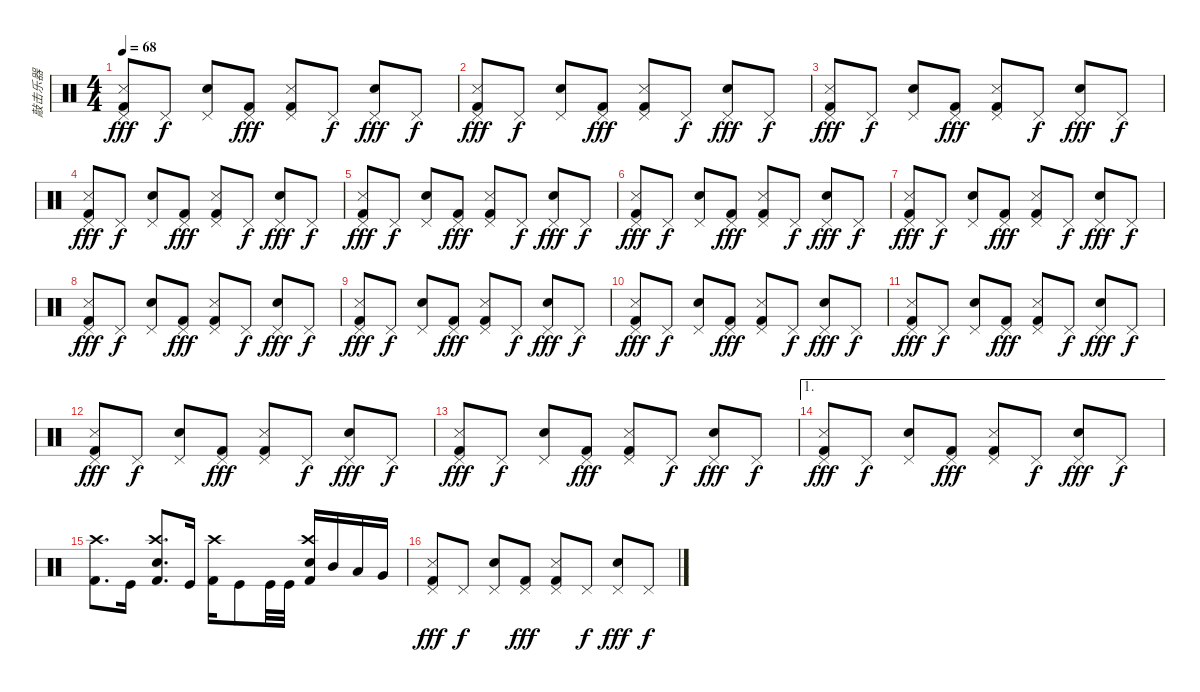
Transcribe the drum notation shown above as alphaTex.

\track ("敲击乐器" "敲击乐器") {instrument percussion}
\staff {score}
\articulation defaults
\ts (4 4)
\tempo 68
\clef neutral
\ks c
("Snare (side stick) 3" "Pedal Hi-Hat (hit)" "Kick (hit) 2").8{dy fff} "Pedal Hi-Hat (hit)".8{dy f} ("Hand Clap (hit)" "Pedal Hi-Hat (hit)").8 ("Pedal Hi-Hat (hit)" "Kick (hit) 2").8{dy fff} ("Snare (side stick) 3" "Pedal Hi-Hat (hit)" "Kick (hit) 2").8 "Pedal Hi-Hat (hit)".8{dy f} ("Hand Clap (hit)" "Pedal Hi-Hat (hit)").8{dy fff} "Pedal Hi-Hat (hit)".8{dy f} |
("Snare (side stick) 3" "Pedal Hi-Hat (hit)" "Kick (hit) 2").8{dy fff} "Pedal Hi-Hat (hit)".8{dy f} ("Hand Clap (hit)" "Pedal Hi-Hat (hit)").8 ("Pedal Hi-Hat (hit)" "Kick (hit) 2").8{dy fff} ("Snare (side stick) 3" "Pedal Hi-Hat (hit)" "Kick (hit) 2").8 "Pedal Hi-Hat (hit)".8{dy f} ("Hand Clap (hit)" "Pedal Hi-Hat (hit)").8{dy fff} "Pedal Hi-Hat (hit)".8{dy f} |
("Snare (side stick) 3" "Pedal Hi-Hat (hit)" "Kick (hit) 2").8{dy fff} "Pedal Hi-Hat (hit)".8{dy f} ("Hand Clap (hit)" "Pedal Hi-Hat (hit)").8 ("Pedal Hi-Hat (hit)" "Kick (hit) 2").8{dy fff} ("Snare (side stick) 3" "Pedal Hi-Hat (hit)" "Kick (hit) 2").8 "Pedal Hi-Hat (hit)".8{dy f} ("Hand Clap (hit)" "Pedal Hi-Hat (hit)").8{dy fff} "Pedal Hi-Hat (hit)".8{dy f} |
("Snare (side stick) 3" "Pedal Hi-Hat (hit)" "Kick (hit) 2").8{dy fff} "Pedal Hi-Hat (hit)".8{dy f} ("Hand Clap (hit)" "Pedal Hi-Hat (hit)").8 ("Pedal Hi-Hat (hit)" "Kick (hit) 2").8{dy fff} ("Snare (side stick) 3" "Pedal Hi-Hat (hit)" "Kick (hit) 2").8 "Pedal Hi-Hat (hit)".8{dy f} ("Hand Clap (hit)" "Pedal Hi-Hat (hit)").8{dy fff} "Pedal Hi-Hat (hit)".8{dy f} |
("Snare (side stick) 3" "Pedal Hi-Hat (hit)" "Kick (hit) 2").8{dy fff} "Pedal Hi-Hat (hit)".8{dy f} ("Hand Clap (hit)" "Pedal Hi-Hat (hit)").8 ("Pedal Hi-Hat (hit)" "Kick (hit) 2").8{dy fff} ("Snare (side stick) 3" "Pedal Hi-Hat (hit)" "Kick (hit) 2").8 "Pedal Hi-Hat (hit)".8{dy f} ("Hand Clap (hit)" "Pedal Hi-Hat (hit)").8{dy fff} "Pedal Hi-Hat (hit)".8{dy f} |
("Snare (side stick) 3" "Pedal Hi-Hat (hit)" "Kick (hit) 2").8{dy fff} "Pedal Hi-Hat (hit)".8{dy f} ("Hand Clap (hit)" "Pedal Hi-Hat (hit)").8 ("Pedal Hi-Hat (hit)" "Kick (hit) 2").8{dy fff} ("Snare (side stick) 3" "Pedal Hi-Hat (hit)" "Kick (hit) 2").8 "Pedal Hi-Hat (hit)".8{dy f} ("Hand Clap (hit)" "Pedal Hi-Hat (hit)").8{dy fff} "Pedal Hi-Hat (hit)".8{dy f} |
("Snare (side stick) 3" "Pedal Hi-Hat (hit)" "Kick (hit) 2").8{dy fff} "Pedal Hi-Hat (hit)".8{dy f} ("Hand Clap (hit)" "Pedal Hi-Hat (hit)").8 ("Pedal Hi-Hat (hit)" "Kick (hit) 2").8{dy fff} ("Snare (side stick) 3" "Pedal Hi-Hat (hit)" "Kick (hit) 2").8 "Pedal Hi-Hat (hit)".8{dy f} ("Hand Clap (hit)" "Pedal Hi-Hat (hit)").8{dy fff} "Pedal Hi-Hat (hit)".8{dy f} |
("Snare (side stick) 3" "Pedal Hi-Hat (hit)" "Kick (hit) 2").8{dy fff} "Pedal Hi-Hat (hit)".8{dy f} ("Hand Clap (hit)" "Pedal Hi-Hat (hit)").8 ("Pedal Hi-Hat (hit)" "Kick (hit) 2").8{dy fff} ("Snare (side stick) 3" "Pedal Hi-Hat (hit)" "Kick (hit) 2").8 "Pedal Hi-Hat (hit)".8{dy f} ("Hand Clap (hit)" "Pedal Hi-Hat (hit)").8{dy fff} "Pedal Hi-Hat (hit)".8{dy f} |
("Snare (side stick) 3" "Pedal Hi-Hat (hit)" "Kick (hit) 2").8{dy fff} "Pedal Hi-Hat (hit)".8{dy f} ("Hand Clap (hit)" "Pedal Hi-Hat (hit)").8 ("Pedal Hi-Hat (hit)" "Kick (hit) 2").8{dy fff} ("Snare (side stick) 3" "Pedal Hi-Hat (hit)" "Kick (hit) 2").8 "Pedal Hi-Hat (hit)".8{dy f} ("Hand Clap (hit)" "Pedal Hi-Hat (hit)").8{dy fff} "Pedal Hi-Hat (hit)".8{dy f} |
("Snare (side stick) 3" "Pedal Hi-Hat (hit)" "Kick (hit) 2").8{dy fff} "Pedal Hi-Hat (hit)".8{dy f} ("Hand Clap (hit)" "Pedal Hi-Hat (hit)").8 ("Pedal Hi-Hat (hit)" "Kick (hit) 2").8{dy fff} ("Snare (side stick) 3" "Pedal Hi-Hat (hit)" "Kick (hit) 2").8 "Pedal Hi-Hat (hit)".8{dy f} ("Hand Clap (hit)" "Pedal Hi-Hat (hit)").8{dy fff} "Pedal Hi-Hat (hit)".8{dy f} |
("Snare (side stick) 3" "Pedal Hi-Hat (hit)" "Kick (hit) 2").8{dy fff} "Pedal Hi-Hat (hit)".8{dy f} ("Hand Clap (hit)" "Pedal Hi-Hat (hit)").8 ("Pedal Hi-Hat (hit)" "Kick (hit) 2").8{dy fff} ("Snare (side stick) 3" "Pedal Hi-Hat (hit)" "Kick (hit) 2").8 "Pedal Hi-Hat (hit)".8{dy f} ("Hand Clap (hit)" "Pedal Hi-Hat (hit)").8{dy fff} "Pedal Hi-Hat (hit)".8{dy f} |
("Snare (side stick) 3" "Pedal Hi-Hat (hit)" "Kick (hit) 2").8{dy fff} "Pedal Hi-Hat (hit)".8{dy f} ("Hand Clap (hit)" "Pedal Hi-Hat (hit)").8 ("Pedal Hi-Hat (hit)" "Kick (hit) 2").8{dy fff} ("Snare (side stick) 3" "Pedal Hi-Hat (hit)" "Kick (hit) 2").8 "Pedal Hi-Hat (hit)".8{dy f} ("Hand Clap (hit)" "Pedal Hi-Hat (hit)").8{dy fff} "Pedal Hi-Hat (hit)".8{dy f} |
("Snare (side stick) 3" "Pedal Hi-Hat (hit)" "Kick (hit) 2").8{dy fff} "Pedal Hi-Hat (hit)".8{dy f} ("Hand Clap (hit)" "Pedal Hi-Hat (hit)").8 ("Pedal Hi-Hat (hit)" "Kick (hit) 2").8{dy fff} ("Snare (side stick) 3" "Pedal Hi-Hat (hit)" "Kick (hit) 2").8 "Pedal Hi-Hat (hit)".8{dy f} ("Hand Clap (hit)" "Pedal Hi-Hat (hit)").8{dy fff} "Pedal Hi-Hat (hit)".8{dy f} |
\ae 1
("Snare (side stick) 3" "Pedal Hi-Hat (hit)" "Kick (hit) 2").8{dy fff} "Pedal Hi-Hat (hit)".8{dy f} ("Hand Clap (hit)" "Pedal Hi-Hat (hit)").8 ("Pedal Hi-Hat (hit)" "Kick (hit) 2").8{dy fff} ("Snare (side stick) 3" "Pedal Hi-Hat (hit)" "Kick (hit) 2").8 "Pedal Hi-Hat (hit)".8{dy f} ("Hand Clap (hit)" "Pedal Hi-Hat (hit)").8{dy fff} "Pedal Hi-Hat (hit)".8{dy f} |
("Crash high (hit)" "Kick (hit) 2").8{d} "Kick (hit)".16 ("Crash high (hit)" "Snare (hit) 2" "Kick (hit) 2").8{d} "Kick (hit)".16 ("Crash high (hit)" "Kick (hit) 2").16 "Kick (hit)".8 "Kick (hit)".32 "Kick (hit)".32 ("Crash high (hit)" "Snare (hit) 2" "Kick (hit) 2").16 "Mid Tom (hit)".16 "Low Tom (hit)".16 "Very Low Tom (hit)".16 |
("Snare (side stick) 3" "Pedal Hi-Hat (hit)" "Kick (hit) 2").8{dy fff} "Pedal Hi-Hat (hit)".8{dy f} ("Hand Clap (hit)" "Pedal Hi-Hat (hit)").8 ("Pedal Hi-Hat (hit)" "Kick (hit) 2").8{dy fff} ("Snare (side stick) 3" "Pedal Hi-Hat (hit)" "Kick (hit) 2").8 "Pedal Hi-Hat (hit)".8{dy f} ("Hand Clap (hit)" "Pedal Hi-Hat (hit)").8{dy fff} "Pedal Hi-Hat (hit)".8{dy f}
